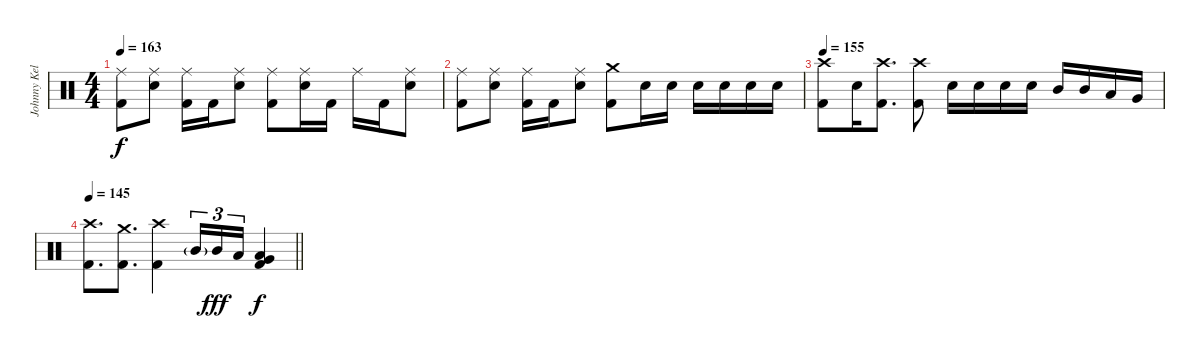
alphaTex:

\track ("Johnny Kelly" "Johnny Kel") {instrument percussion}
\staff {score}
\articulation defaults
\ts (4 4)
\tempo 163
\clef neutral
\ks c
("Ride (middle)" "Kick (hit) 2").8{dy f} ("Ride (middle)" "Electric Snare (hit)").8 ("Ride (middle)" "Kick (hit) 2").16 "Kick (hit) 2".16 ("Ride (middle)" "Electric Snare (hit)").8 ("Ride (middle)" "Kick (hit) 2").8 ("Ride (middle)" "Electric Snare (hit)").16 "Kick (hit) 2".16 "Ride (middle)".16 "Kick (hit) 2".16 ("Ride (middle)" "Electric Snare (hit)").8 |
("Ride (middle)" "Kick (hit) 2").8 ("Ride (middle)" "Electric Snare (hit)").8 ("Ride (middle)" "Kick (hit) 2").16 "Kick (hit) 2".16 ("Ride (middle)" "Electric Snare (hit)").8 ("Crash medium (hit)" "Kick (hit) 2").8 "Electric Snare (hit)".16 "Electric Snare (hit)".16 "Electric Snare (hit)".16 "Electric Snare (hit)".16 "Electric Snare (hit)".16 "Electric Snare (hit)".16 |
\tempo 155
("Crash high (hit)" "Kick (hit) 2").8 "Electric Snare (hit)".16 ("Crash high (hit)" "Kick (hit) 2").8{d} ("Crash high (hit)" "Kick (hit) 2").8 "Electric Snare (hit)".16 "Electric Snare (hit)".16 "Electric Snare (hit)".16 "Electric Snare (hit)".16 "Mid Tom (hit)".16 "Mid Tom (hit)".16 "Low Tom (hit)".16 "Very Low Tom (hit)".16 |
\tempo 145
\barLineRight lightlight
("Crash high (hit)" "Kick (hit) 2").8{d} ("Crash medium (hit)" "Kick (hit) 2").8{d} ("Crash high (hit)" "Kick (hit) 2").4 "Mid Tom (hit)"{g}.16{tu (3 2)} "Mid Tom (hit)".16{tu (3 2) dy fff} "Low Tom (hit)".16{tu (3 2)} ("Very Low Tom (hit)" "Low Floor Tom (hit)" "Kick (hit) 2").4{dy f}
